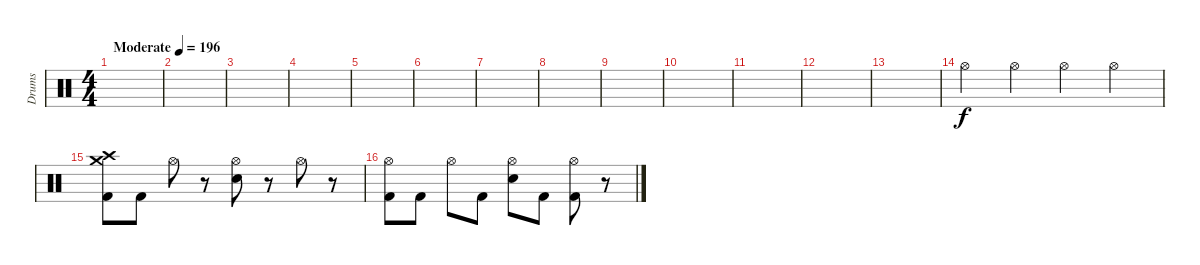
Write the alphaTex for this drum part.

\track ("Drums" "Drums") {instrument percussion}
\staff {score}
\articulation defaults
\ts (4 4)
\tempo (196 "Moderate")
\tempo 156
\tempo (196 "Moderate")
\clef neutral
\ks c
|
|
|
|
|
|
|
|
|
|
|
|
|
"Hi-Hat (open)".4 "Hi-Hat (open)".4 "Hi-Hat (open)".4 "Hi-Hat (open)".4 |
("Crash high (hit)" "Crash medium (hit)" "Kick (hit) 2").8 "Kick (hit) 2".8 "Hi-Hat (open)".8 r.8 ("Hi-Hat (open)" "Snare (hit) 2").8 r.8 "Hi-Hat (open)".8 r.8 |
("Hi-Hat (open)" "Kick (hit) 2").8 "Kick (hit) 2".8 "Hi-Hat (open)".8 "Kick (hit) 2".8 ("Hi-Hat (open)" "Snare (hit) 2").8 "Kick (hit) 2".8 ("Hi-Hat (open)" "Kick (hit) 2").8 r.8
